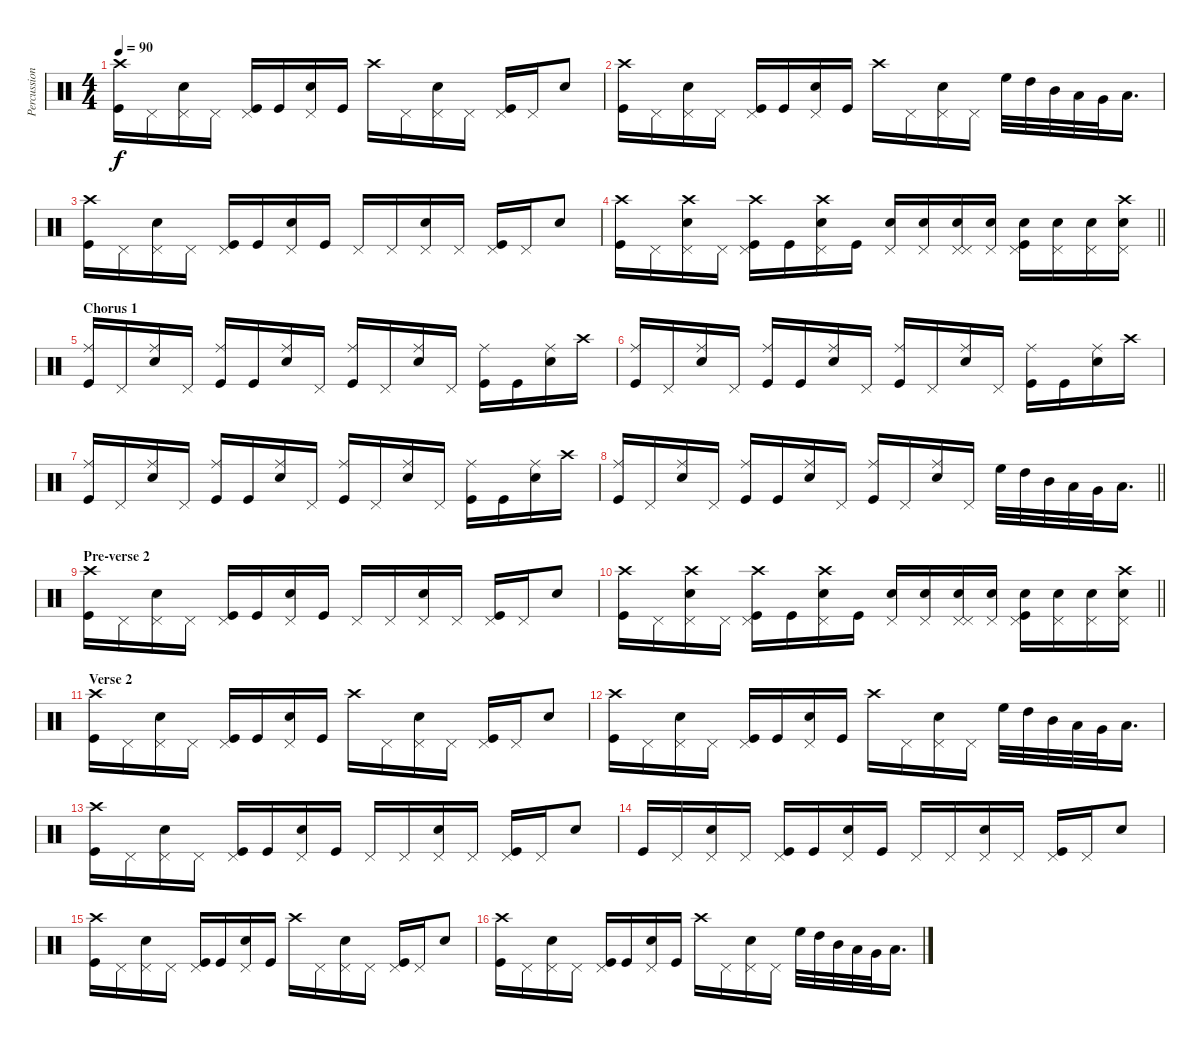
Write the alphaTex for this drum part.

\track ("Percussion" "Percussion") {instrument percussion}
\staff {score}
\articulation defaults
\ts (4 4)
\tempo 90
\clef neutral
\ks c
("Crash high (hit)" "Kick (hit)").16{dy f} "Pedal Hi-Hat (hit)".16 ("Pedal Hi-Hat (hit)" "Snare (hit) 2").16 "Pedal Hi-Hat (hit)".16 ("Pedal Hi-Hat (hit)" "Kick (hit)").16 "Kick (hit)".16 ("Pedal Hi-Hat (hit)" "Snare (hit) 2").16 "Kick (hit)".16 "Crash high (hit)".16 "Pedal Hi-Hat (hit)".16 ("Pedal Hi-Hat (hit)" "Snare (hit) 2").16 "Pedal Hi-Hat (hit)".16 ("Pedal Hi-Hat (hit)" "Kick (hit)").16 "Pedal Hi-Hat (hit)".16 "Snare (hit) 2".8 |
("Crash high (hit)" "Kick (hit)").16 "Pedal Hi-Hat (hit)".16 ("Pedal Hi-Hat (hit)" "Snare (hit) 2").16 "Pedal Hi-Hat (hit)".16 ("Pedal Hi-Hat (hit)" "Kick (hit)").16 "Kick (hit)".16 ("Pedal Hi-Hat (hit)" "Snare (hit) 2").16 "Kick (hit)".16 "Crash high (hit)".16 "Pedal Hi-Hat (hit)".16 ("Pedal Hi-Hat (hit)" "Snare (hit) 2").16 "Pedal Hi-Hat (hit)".16 "High Floor Tom (hit)".32 "High Tom (hit)".32 "Mid Tom (hit)".32 "Low Tom (hit)".32 "Very Low Tom (hit)".32 "Low Floor Tom (hit)".16{d} |
("Crash high (hit)" "Kick (hit)").16 "Pedal Hi-Hat (hit)".16 ("Pedal Hi-Hat (hit)" "Snare (hit) 2").16 "Pedal Hi-Hat (hit)".16 ("Pedal Hi-Hat (hit)" "Kick (hit)").16 "Kick (hit)".16 ("Pedal Hi-Hat (hit)" "Snare (hit) 2").16 "Kick (hit)".16 "Pedal Hi-Hat (hit)".16 "Pedal Hi-Hat (hit)".16 ("Pedal Hi-Hat (hit)" "Snare (hit) 2").16 "Pedal Hi-Hat (hit)".16 ("Pedal Hi-Hat (hit)" "Kick (hit)").16 "Pedal Hi-Hat (hit)".16 "Snare (hit) 2".8 |
\barLineRight lightlight
("Crash high (hit)" "Kick (hit)").16 "Pedal Hi-Hat (hit)".16 ("Pedal Hi-Hat (hit)" "Crash high (hit)" "Snare (hit) 2").16 "Pedal Hi-Hat (hit)".16 ("Pedal Hi-Hat (hit)" "Kick (hit)" "Crash high (hit)").16 "Kick (hit)".16 ("Pedal Hi-Hat (hit)" "Crash high (hit)" "Snare (hit) 2").16 "Kick (hit)".16 ("Pedal Hi-Hat (hit)" "Snare (hit) 2").16 ("Snare (hit) 2" "Pedal Hi-Hat (hit)").16 ("Pedal Hi-Hat (hit)" "Pedal Hi-Hat (hit)" "Snare (hit) 2").16 ("Snare (hit) 2" "Pedal Hi-Hat (hit)").16 ("Pedal Hi-Hat (hit)" "Snare (hit) 2" "Kick (hit)").16 ("Snare (hit) 2" "Pedal Hi-Hat (hit)").16 ("Pedal Hi-Hat (hit)" "Snare (hit) 2").16 ("Snare (hit) 2" "Crash high (hit)" "Pedal Hi-Hat (hit)").16 |
\section ("" "Chorus 1")
("Ride (middle)" "Kick (hit)").16 "Pedal Hi-Hat (hit)".16 ("Ride (middle)" "Snare (hit) 2").16 "Pedal Hi-Hat (hit)".16 ("Ride (middle)" "Kick (hit)").16 "Kick (hit)".16 ("Ride (middle)" "Snare (hit) 2").16 "Pedal Hi-Hat (hit)".16 ("Ride (middle)" "Kick (hit)").16 "Pedal Hi-Hat (hit)".16 ("Ride (middle)" "Snare (hit) 2").16 "Pedal Hi-Hat (hit)".16 ("Ride (middle)" "Kick (hit)").16 "Kick (hit)".16 ("Ride (middle)" "Snare (hit) 2").16 "Crash high (hit)".16 |
("Ride (middle)" "Kick (hit)").16 "Pedal Hi-Hat (hit)".16 ("Ride (middle)" "Snare (hit) 2").16 "Pedal Hi-Hat (hit)".16 ("Ride (middle)" "Kick (hit)").16 "Kick (hit)".16 ("Ride (middle)" "Snare (hit) 2").16 "Pedal Hi-Hat (hit)".16 ("Ride (middle)" "Kick (hit)").16 "Pedal Hi-Hat (hit)".16 ("Ride (middle)" "Snare (hit) 2").16 "Pedal Hi-Hat (hit)".16 ("Ride (middle)" "Kick (hit)").16 "Kick (hit)".16 ("Ride (middle)" "Snare (hit) 2").16 "Crash high (hit)".16 |
("Ride (middle)" "Kick (hit)").16 "Pedal Hi-Hat (hit)".16 ("Ride (middle)" "Snare (hit) 2").16 "Pedal Hi-Hat (hit)".16 ("Ride (middle)" "Kick (hit)").16 "Kick (hit)".16 ("Ride (middle)" "Snare (hit) 2").16 "Pedal Hi-Hat (hit)".16 ("Ride (middle)" "Kick (hit)").16 "Pedal Hi-Hat (hit)".16 ("Ride (middle)" "Snare (hit) 2").16 "Pedal Hi-Hat (hit)".16 ("Ride (middle)" "Kick (hit)").16 "Kick (hit)".16 ("Ride (middle)" "Snare (hit) 2").16 "Crash high (hit)".16 |
\barLineRight lightlight
("Ride (middle)" "Kick (hit)").16 "Pedal Hi-Hat (hit)".16 ("Ride (middle)" "Snare (hit) 2").16 "Pedal Hi-Hat (hit)".16 ("Ride (middle)" "Kick (hit)").16 "Kick (hit)".16 ("Ride (middle)" "Snare (hit) 2").16 "Pedal Hi-Hat (hit)".16 ("Ride (middle)" "Kick (hit)").16 "Pedal Hi-Hat (hit)".16 ("Ride (middle)" "Snare (hit) 2").16 "Pedal Hi-Hat (hit)".16 "High Floor Tom (hit)".32 "High Tom (hit)".32 "Mid Tom (hit)".32 "Low Tom (hit)".32 "Very Low Tom (hit)".32 "Low Floor Tom (hit)".16{d} |
\section ("" "Pre-verse 2")
("Crash high (hit)" "Kick (hit)").16 "Pedal Hi-Hat (hit)".16 ("Pedal Hi-Hat (hit)" "Snare (hit) 2").16 "Pedal Hi-Hat (hit)".16 ("Pedal Hi-Hat (hit)" "Kick (hit)").16 "Kick (hit)".16 ("Pedal Hi-Hat (hit)" "Snare (hit) 2").16 "Kick (hit)".16 "Pedal Hi-Hat (hit)".16 "Pedal Hi-Hat (hit)".16 ("Pedal Hi-Hat (hit)" "Snare (hit) 2").16 "Pedal Hi-Hat (hit)".16 ("Pedal Hi-Hat (hit)" "Kick (hit)").16 "Pedal Hi-Hat (hit)".16 "Snare (hit) 2".8 |
\barLineRight lightlight
("Crash high (hit)" "Kick (hit)").16 "Pedal Hi-Hat (hit)".16 ("Pedal Hi-Hat (hit)" "Crash high (hit)" "Snare (hit) 2").16 "Pedal Hi-Hat (hit)".16 ("Pedal Hi-Hat (hit)" "Kick (hit)" "Crash high (hit)").16 "Kick (hit)".16 ("Pedal Hi-Hat (hit)" "Crash high (hit)" "Snare (hit) 2").16 "Kick (hit)".16 ("Pedal Hi-Hat (hit)" "Snare (hit) 2").16 ("Snare (hit) 2" "Pedal Hi-Hat (hit)").16 ("Pedal Hi-Hat (hit)" "Pedal Hi-Hat (hit)" "Snare (hit) 2").16 ("Snare (hit) 2" "Pedal Hi-Hat (hit)").16 ("Pedal Hi-Hat (hit)" "Snare (hit) 2" "Kick (hit)").16 ("Snare (hit) 2" "Pedal Hi-Hat (hit)").16 ("Pedal Hi-Hat (hit)" "Snare (hit) 2").16 ("Snare (hit) 2" "Crash high (hit)" "Pedal Hi-Hat (hit)").16 |
\section ("" "Verse 2")
("Crash high (hit)" "Kick (hit)").16 "Pedal Hi-Hat (hit)".16 ("Pedal Hi-Hat (hit)" "Snare (hit) 2").16 "Pedal Hi-Hat (hit)".16 ("Pedal Hi-Hat (hit)" "Kick (hit)").16 "Kick (hit)".16 ("Pedal Hi-Hat (hit)" "Snare (hit) 2").16 "Kick (hit)".16 "Crash high (hit)".16 "Pedal Hi-Hat (hit)".16 ("Pedal Hi-Hat (hit)" "Snare (hit) 2").16 "Pedal Hi-Hat (hit)".16 ("Pedal Hi-Hat (hit)" "Kick (hit)").16 "Pedal Hi-Hat (hit)".16 "Snare (hit) 2".8 |
("Crash high (hit)" "Kick (hit)").16 "Pedal Hi-Hat (hit)".16 ("Pedal Hi-Hat (hit)" "Snare (hit) 2").16 "Pedal Hi-Hat (hit)".16 ("Pedal Hi-Hat (hit)" "Kick (hit)").16 "Kick (hit)".16 ("Pedal Hi-Hat (hit)" "Snare (hit) 2").16 "Kick (hit)".16 "Crash high (hit)".16 "Pedal Hi-Hat (hit)".16 ("Pedal Hi-Hat (hit)" "Snare (hit) 2").16 "Pedal Hi-Hat (hit)".16 "High Floor Tom (hit)".32 "High Tom (hit)".32 "Mid Tom (hit)".32 "Low Tom (hit)".32 "Very Low Tom (hit)".32 "Low Floor Tom (hit)".16{d} |
("Crash high (hit)" "Kick (hit)").16 "Pedal Hi-Hat (hit)".16 ("Pedal Hi-Hat (hit)" "Snare (hit) 2").16 "Pedal Hi-Hat (hit)".16 ("Pedal Hi-Hat (hit)" "Kick (hit)").16 "Kick (hit)".16 ("Pedal Hi-Hat (hit)" "Snare (hit) 2").16 "Kick (hit)".16 "Pedal Hi-Hat (hit)".16 "Pedal Hi-Hat (hit)".16 ("Pedal Hi-Hat (hit)" "Snare (hit) 2").16 "Pedal Hi-Hat (hit)".16 ("Pedal Hi-Hat (hit)" "Kick (hit)").16 "Pedal Hi-Hat (hit)".16 "Snare (hit) 2".8 |
"Kick (hit)".16 "Pedal Hi-Hat (hit)".16 ("Pedal Hi-Hat (hit)" "Snare (hit) 2").16 "Pedal Hi-Hat (hit)".16 ("Pedal Hi-Hat (hit)" "Kick (hit)").16 "Kick (hit)".16 ("Pedal Hi-Hat (hit)" "Snare (hit) 2").16 "Kick (hit)".16 "Pedal Hi-Hat (hit)".16 "Pedal Hi-Hat (hit)".16 ("Pedal Hi-Hat (hit)" "Snare (hit) 2").16 "Pedal Hi-Hat (hit)".16 ("Pedal Hi-Hat (hit)" "Kick (hit)").16 "Pedal Hi-Hat (hit)".16 "Snare (hit) 2".8 |
("Crash high (hit)" "Kick (hit)").16 "Pedal Hi-Hat (hit)".16 ("Pedal Hi-Hat (hit)" "Snare (hit) 2").16 "Pedal Hi-Hat (hit)".16 ("Pedal Hi-Hat (hit)" "Kick (hit)").16 "Kick (hit)".16 ("Pedal Hi-Hat (hit)" "Snare (hit) 2").16 "Kick (hit)".16 "Crash high (hit)".16 "Pedal Hi-Hat (hit)".16 ("Pedal Hi-Hat (hit)" "Snare (hit) 2").16 "Pedal Hi-Hat (hit)".16 ("Pedal Hi-Hat (hit)" "Kick (hit)").16 "Pedal Hi-Hat (hit)".16 "Snare (hit) 2".8 |
("Crash high (hit)" "Kick (hit)").16 "Pedal Hi-Hat (hit)".16 ("Pedal Hi-Hat (hit)" "Snare (hit) 2").16 "Pedal Hi-Hat (hit)".16 ("Pedal Hi-Hat (hit)" "Kick (hit)").16 "Kick (hit)".16 ("Pedal Hi-Hat (hit)" "Snare (hit) 2").16 "Kick (hit)".16 "Crash high (hit)".16 "Pedal Hi-Hat (hit)".16 ("Pedal Hi-Hat (hit)" "Snare (hit) 2").16 "Pedal Hi-Hat (hit)".16 "High Floor Tom (hit)".32 "High Tom (hit)".32 "Mid Tom (hit)".32 "Low Tom (hit)".32 "Very Low Tom (hit)".32 "Low Floor Tom (hit)".16{d}
